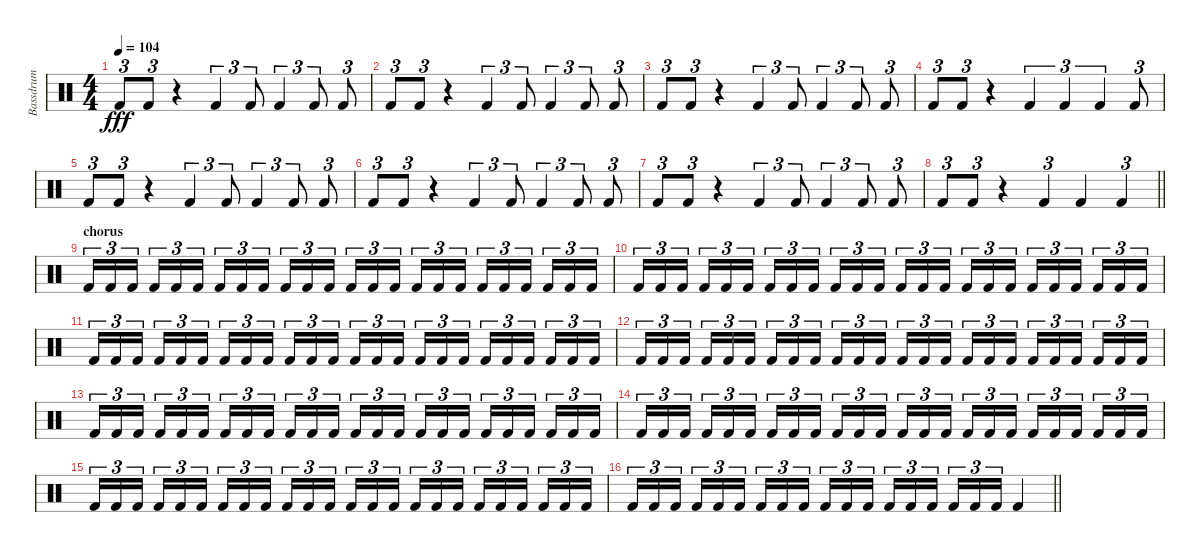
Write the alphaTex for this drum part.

\track ("Bassdrum" "Bassdrum") {instrument percussion}
\staff {score}
\articulation defaults
\ts (4 4)
\tempo 104
\clef neutral
\ks c "Kick (hit) 2".8{tu (3 2) dy fff} "Kick (hit) 2".8{tu (3 2)}
r.4 "Kick (hit) 2".4{tu (3 2)} "Kick (hit) 2".8{tu (3 2)} "Kick (hit) 2".4{tu (3 2)} "Kick (hit) 2".8{tu (3 2)} "Kick (hit) 2".8{tu (3 2)} |
"Kick (hit) 2".8{tu (3 2)} "Kick (hit) 2".8{tu (3 2)} r.4 "Kick (hit) 2".4{tu (3 2)} "Kick (hit) 2".8{tu (3 2)} "Kick (hit) 2".4{tu (3 2)} "Kick (hit) 2".8{tu (3 2)} "Kick (hit) 2".8{tu (3 2)} |
"Kick (hit) 2".8{tu (3 2)} "Kick (hit) 2".8{tu (3 2)} r.4 "Kick (hit) 2".4{tu (3 2)} "Kick (hit) 2".8{tu (3 2)} "Kick (hit) 2".4{tu (3 2)} "Kick (hit) 2".8{tu (3 2)} "Kick (hit) 2".8{tu (3 2)} |
"Kick (hit) 2".8{tu (3 2)} "Kick (hit) 2".8{tu (3 2)} r.4 "Kick (hit) 2".4{tu (3 2)} "Kick (hit) 2".4{tu (3 2)} "Kick (hit) 2".4{tu (3 2)} "Kick (hit) 2".8{tu (3 2)} |
"Kick (hit) 2".8{tu (3 2)} "Kick (hit) 2".8{tu (3 2)} r.4 "Kick (hit) 2".4{tu (3 2)} "Kick (hit) 2".8{tu (3 2)} "Kick (hit) 2".4{tu (3 2)} "Kick (hit) 2".8{tu (3 2)} "Kick (hit) 2".8{tu (3 2)} |
"Kick (hit) 2".8{tu (3 2)} "Kick (hit) 2".8{tu (3 2)} r.4 "Kick (hit) 2".4{tu (3 2)} "Kick (hit) 2".8{tu (3 2)} "Kick (hit) 2".4{tu (3 2)} "Kick (hit) 2".8{tu (3 2)} "Kick (hit) 2".8{tu (3 2)} |
"Kick (hit) 2".8{tu (3 2)} "Kick (hit) 2".8{tu (3 2)} r.4 "Kick (hit) 2".4{tu (3 2)} "Kick (hit) 2".8{tu (3 2)} "Kick (hit) 2".4{tu (3 2)} "Kick (hit) 2".8{tu (3 2)} "Kick (hit) 2".8{tu (3 2)} |
\barLineRight lightlight "Kick (hit) 2".8{tu (3 2)} "Kick (hit) 2".8{tu (3 2)}
r.4 "Kick (hit) 2".4{tu (3 2)} "Kick (hit) 2".4 "Kick (hit) 2".4{tu (3 2)} |
\section ("" "chorus")
"Kick (hit) 2".16{tu (3 2)} "Kick (hit) 2".16{tu (3 2)} "Kick (hit) 2".16{tu (3 2) beam splitsecondary} "Kick (hit) 2".16{tu (3 2)} "Kick (hit) 2".16{tu (3 2)} "Kick (hit) 2".16{tu (3 2)} "Kick (hit) 2".16{tu (3 2)} "Kick (hit) 2".16{tu (3 2)} "Kick (hit) 2".16{tu (3 2) beam splitsecondary} "Kick (hit) 2".16{tu (3 2)} "Kick (hit) 2".16{tu (3 2)} "Kick (hit) 2".16{tu (3 2)} "Kick (hit) 2".16{tu (3 2)} "Kick (hit) 2".16{tu (3 2)} "Kick (hit) 2".16{tu (3 2) beam splitsecondary} "Kick (hit) 2".16{tu (3 2)} "Kick (hit) 2".16{tu (3 2)} "Kick (hit) 2".16{tu (3 2)} "Kick (hit) 2".16{tu (3 2)} "Kick (hit) 2".16{tu (3 2)} "Kick (hit) 2".16{tu (3 2) beam splitsecondary} "Kick (hit) 2".16{tu (3 2)} "Kick (hit) 2".16{tu (3 2)} "Kick (hit) 2".16{tu (3 2)} |
"Kick (hit) 2".16{tu (3 2)} "Kick (hit) 2".16{tu (3 2)} "Kick (hit) 2".16{tu (3 2) beam splitsecondary} "Kick (hit) 2".16{tu (3 2)} "Kick (hit) 2".16{tu (3 2)} "Kick (hit) 2".16{tu (3 2)} "Kick (hit) 2".16{tu (3 2)} "Kick (hit) 2".16{tu (3 2)} "Kick (hit) 2".16{tu (3 2) beam splitsecondary} "Kick (hit) 2".16{tu (3 2)} "Kick (hit) 2".16{tu (3 2)} "Kick (hit) 2".16{tu (3 2)} "Kick (hit) 2".16{tu (3 2)} "Kick (hit) 2".16{tu (3 2)} "Kick (hit) 2".16{tu (3 2) beam splitsecondary} "Kick (hit) 2".16{tu (3 2)} "Kick (hit) 2".16{tu (3 2)} "Kick (hit) 2".16{tu (3 2)} "Kick (hit) 2".16{tu (3 2)} "Kick (hit) 2".16{tu (3 2)} "Kick (hit) 2".16{tu (3 2) beam splitsecondary} "Kick (hit) 2".16{tu (3 2)} "Kick (hit) 2".16{tu (3 2)} "Kick (hit) 2".16{tu (3 2)} |
"Kick (hit) 2".16{tu (3 2)} "Kick (hit) 2".16{tu (3 2)} "Kick (hit) 2".16{tu (3 2) beam splitsecondary} "Kick (hit) 2".16{tu (3 2)} "Kick (hit) 2".16{tu (3 2)} "Kick (hit) 2".16{tu (3 2)} "Kick (hit) 2".16{tu (3 2)} "Kick (hit) 2".16{tu (3 2)} "Kick (hit) 2".16{tu (3 2) beam splitsecondary} "Kick (hit) 2".16{tu (3 2)} "Kick (hit) 2".16{tu (3 2)} "Kick (hit) 2".16{tu (3 2)} "Kick (hit) 2".16{tu (3 2)} "Kick (hit) 2".16{tu (3 2)} "Kick (hit) 2".16{tu (3 2) beam splitsecondary} "Kick (hit) 2".16{tu (3 2)} "Kick (hit) 2".16{tu (3 2)} "Kick (hit) 2".16{tu (3 2)} "Kick (hit) 2".16{tu (3 2)} "Kick (hit) 2".16{tu (3 2)} "Kick (hit) 2".16{tu (3 2) beam splitsecondary} "Kick (hit) 2".16{tu (3 2)} "Kick (hit) 2".16{tu (3 2)} "Kick (hit) 2".16{tu (3 2)} |
"Kick (hit) 2".16{tu (3 2)} "Kick (hit) 2".16{tu (3 2)} "Kick (hit) 2".16{tu (3 2) beam splitsecondary} "Kick (hit) 2".16{tu (3 2)} "Kick (hit) 2".16{tu (3 2)} "Kick (hit) 2".16{tu (3 2)} "Kick (hit) 2".16{tu (3 2)} "Kick (hit) 2".16{tu (3 2)} "Kick (hit) 2".16{tu (3 2) beam splitsecondary} "Kick (hit) 2".16{tu (3 2)} "Kick (hit) 2".16{tu (3 2)} "Kick (hit) 2".16{tu (3 2)} "Kick (hit) 2".16{tu (3 2)} "Kick (hit) 2".16{tu (3 2)} "Kick (hit) 2".16{tu (3 2) beam splitsecondary} "Kick (hit) 2".16{tu (3 2)} "Kick (hit) 2".16{tu (3 2)} "Kick (hit) 2".16{tu (3 2)} "Kick (hit) 2".16{tu (3 2)} "Kick (hit) 2".16{tu (3 2)} "Kick (hit) 2".16{tu (3 2) beam splitsecondary} "Kick (hit) 2".16{tu (3 2)} "Kick (hit) 2".16{tu (3 2)} "Kick (hit) 2".16{tu (3 2)} |
"Kick (hit) 2".16{tu (3 2)} "Kick (hit) 2".16{tu (3 2)} "Kick (hit) 2".16{tu (3 2) beam splitsecondary} "Kick (hit) 2".16{tu (3 2)} "Kick (hit) 2".16{tu (3 2)} "Kick (hit) 2".16{tu (3 2)} "Kick (hit) 2".16{tu (3 2)} "Kick (hit) 2".16{tu (3 2)} "Kick (hit) 2".16{tu (3 2) beam splitsecondary} "Kick (hit) 2".16{tu (3 2)} "Kick (hit) 2".16{tu (3 2)} "Kick (hit) 2".16{tu (3 2)} "Kick (hit) 2".16{tu (3 2)} "Kick (hit) 2".16{tu (3 2)} "Kick (hit) 2".16{tu (3 2) beam splitsecondary} "Kick (hit) 2".16{tu (3 2)} "Kick (hit) 2".16{tu (3 2)} "Kick (hit) 2".16{tu (3 2)} "Kick (hit) 2".16{tu (3 2)} "Kick (hit) 2".16{tu (3 2)} "Kick (hit) 2".16{tu (3 2) beam splitsecondary} "Kick (hit) 2".16{tu (3 2)} "Kick (hit) 2".16{tu (3 2)} "Kick (hit) 2".16{tu (3 2)} |
"Kick (hit) 2".16{tu (3 2)} "Kick (hit) 2".16{tu (3 2)} "Kick (hit) 2".16{tu (3 2) beam splitsecondary} "Kick (hit) 2".16{tu (3 2)} "Kick (hit) 2".16{tu (3 2)} "Kick (hit) 2".16{tu (3 2)} "Kick (hit) 2".16{tu (3 2)} "Kick (hit) 2".16{tu (3 2)} "Kick (hit) 2".16{tu (3 2) beam splitsecondary} "Kick (hit) 2".16{tu (3 2)} "Kick (hit) 2".16{tu (3 2)} "Kick (hit) 2".16{tu (3 2)} "Kick (hit) 2".16{tu (3 2)} "Kick (hit) 2".16{tu (3 2)} "Kick (hit) 2".16{tu (3 2) beam splitsecondary} "Kick (hit) 2".16{tu (3 2)} "Kick (hit) 2".16{tu (3 2)} "Kick (hit) 2".16{tu (3 2)} "Kick (hit) 2".16{tu (3 2)} "Kick (hit) 2".16{tu (3 2)} "Kick (hit) 2".16{tu (3 2) beam splitsecondary} "Kick (hit) 2".16{tu (3 2)} "Kick (hit) 2".16{tu (3 2)} "Kick (hit) 2".16{tu (3 2)} |
"Kick (hit) 2".16{tu (3 2)} "Kick (hit) 2".16{tu (3 2)} "Kick (hit) 2".16{tu (3 2) beam splitsecondary} "Kick (hit) 2".16{tu (3 2)} "Kick (hit) 2".16{tu (3 2)} "Kick (hit) 2".16{tu (3 2)} "Kick (hit) 2".16{tu (3 2)} "Kick (hit) 2".16{tu (3 2)} "Kick (hit) 2".16{tu (3 2) beam splitsecondary} "Kick (hit) 2".16{tu (3 2)} "Kick (hit) 2".16{tu (3 2)} "Kick (hit) 2".16{tu (3 2)} "Kick (hit) 2".16{tu (3 2)} "Kick (hit) 2".16{tu (3 2)} "Kick (hit) 2".16{tu (3 2) beam splitsecondary} "Kick (hit) 2".16{tu (3 2)} "Kick (hit) 2".16{tu (3 2)} "Kick (hit) 2".16{tu (3 2)} "Kick (hit) 2".16{tu (3 2)} "Kick (hit) 2".16{tu (3 2)} "Kick (hit) 2".16{tu (3 2) beam splitsecondary} "Kick (hit) 2".16{tu (3 2)} "Kick (hit) 2".16{tu (3 2)} "Kick (hit) 2".16{tu (3 2)} |
\barLineRight lightlight "Kick (hit) 2".16{tu (3 2)} "Kick (hit) 2".16{tu (3 2)} "Kick (hit) 2".16{tu (3 2) beam splitsecondary} "Kick (hit) 2".16{tu (3 2)} "Kick (hit) 2".16{tu (3 2)} "Kick (hit) 2".16{tu (3 2)} "Kick (hit) 2".16{tu (3 2)} "Kick (hit) 2".16{tu (3 2)} "Kick (hit) 2".16{tu (3 2) beam splitsecondary} "Kick (hit) 2".16{tu (3 2)} "Kick (hit) 2".16{tu (3 2)} "Kick (hit) 2".16{tu (3 2)} "Kick (hit) 2".16{tu (3 2)} "Kick (hit) 2".16{tu (3 2)} "Kick (hit) 2".16{tu (3 2) beam splitsecondary} "Kick (hit) 2".16{tu (3 2)} "Kick (hit) 2".16{tu (3 2)} "Kick (hit) 2".16{tu (3 2)} "Kick (hit) 2".4
